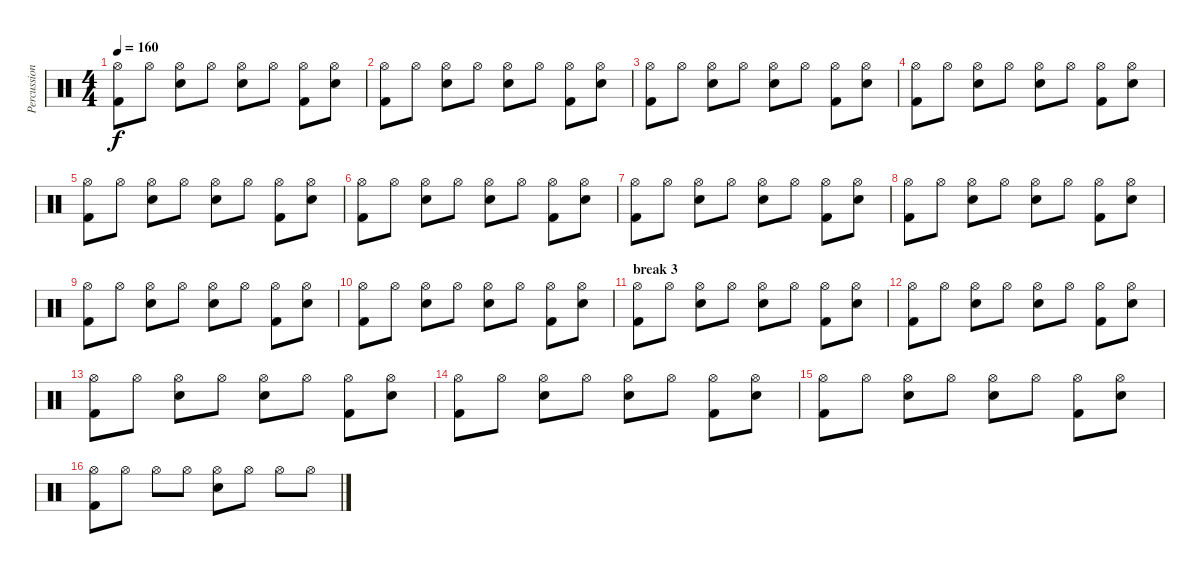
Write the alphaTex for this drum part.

\track ("Percussions" "Percussion") {instrument percussion}
\staff {score}
\articulation defaults
\ts (4 4)
\tempo 160
\clef neutral
\ks c
("Hi-Hat (open)" "Kick (hit) 2").8{dy f} "Hi-Hat (open)".8 ("Hi-Hat (open)" "Electric Snare (hit)").8 "Hi-Hat (open)".8 ("Hi-Hat (open)" "Electric Snare (hit)").8 "Hi-Hat (open)".8 ("Hi-Hat (open)" "Kick (hit) 2").8 ("Hi-Hat (open)" "Electric Snare (hit)").8 |
("Hi-Hat (open)" "Kick (hit) 2").8 "Hi-Hat (open)".8 ("Hi-Hat (open)" "Electric Snare (hit)").8 "Hi-Hat (open)".8 ("Hi-Hat (open)" "Electric Snare (hit)").8 "Hi-Hat (open)".8 ("Hi-Hat (open)" "Kick (hit) 2").8 ("Hi-Hat (open)" "Electric Snare (hit)").8 |
("Hi-Hat (open)" "Kick (hit) 2").8 "Hi-Hat (open)".8 ("Hi-Hat (open)" "Electric Snare (hit)").8 "Hi-Hat (open)".8 ("Hi-Hat (open)" "Electric Snare (hit)").8 "Hi-Hat (open)".8 ("Hi-Hat (open)" "Kick (hit) 2").8 ("Hi-Hat (open)" "Electric Snare (hit)").8 |
("Hi-Hat (open)" "Kick (hit) 2").8 "Hi-Hat (open)".8 ("Hi-Hat (open)" "Electric Snare (hit)").8 "Hi-Hat (open)".8 ("Hi-Hat (open)" "Electric Snare (hit)").8 "Hi-Hat (open)".8 ("Hi-Hat (open)" "Kick (hit) 2").8 ("Hi-Hat (open)" "Electric Snare (hit)").8 |
("Hi-Hat (open)" "Kick (hit) 2").8 "Hi-Hat (open)".8 ("Hi-Hat (open)" "Electric Snare (hit)").8 "Hi-Hat (open)".8 ("Hi-Hat (open)" "Electric Snare (hit)").8 "Hi-Hat (open)".8 ("Hi-Hat (open)" "Kick (hit) 2").8 ("Hi-Hat (open)" "Electric Snare (hit)").8 |
("Hi-Hat (open)" "Kick (hit) 2").8 "Hi-Hat (open)".8 ("Hi-Hat (open)" "Electric Snare (hit)").8 "Hi-Hat (open)".8 ("Hi-Hat (open)" "Electric Snare (hit)").8 "Hi-Hat (open)".8 ("Hi-Hat (open)" "Kick (hit) 2").8 ("Hi-Hat (open)" "Electric Snare (hit)").8 |
("Hi-Hat (open)" "Kick (hit) 2").8 "Hi-Hat (open)".8 ("Hi-Hat (open)" "Electric Snare (hit)").8 "Hi-Hat (open)".8 ("Hi-Hat (open)" "Electric Snare (hit)").8 "Hi-Hat (open)".8 ("Hi-Hat (open)" "Kick (hit) 2").8 ("Hi-Hat (open)" "Electric Snare (hit)").8 |
("Hi-Hat (open)" "Kick (hit) 2").8 "Hi-Hat (open)".8 ("Hi-Hat (open)" "Electric Snare (hit)").8 "Hi-Hat (open)".8 ("Hi-Hat (open)" "Electric Snare (hit)").8 "Hi-Hat (open)".8 ("Hi-Hat (open)" "Kick (hit) 2").8 ("Hi-Hat (open)" "Electric Snare (hit)").8 |
("Hi-Hat (open)" "Kick (hit) 2").8 "Hi-Hat (open)".8 ("Hi-Hat (open)" "Electric Snare (hit)").8 "Hi-Hat (open)".8 ("Hi-Hat (open)" "Electric Snare (hit)").8 "Hi-Hat (open)".8 ("Hi-Hat (open)" "Kick (hit) 2").8 ("Hi-Hat (open)" "Electric Snare (hit)").8 |
("Hi-Hat (open)" "Kick (hit) 2").8 "Hi-Hat (open)".8 ("Hi-Hat (open)" "Electric Snare (hit)").8 "Hi-Hat (open)".8 ("Hi-Hat (open)" "Electric Snare (hit)").8 "Hi-Hat (open)".8 ("Hi-Hat (open)" "Kick (hit) 2").8 ("Hi-Hat (open)" "Electric Snare (hit)").8 |
\section ("" "break 3")
("Hi-Hat (open)" "Kick (hit) 2").8 "Hi-Hat (open)".8 ("Hi-Hat (open)" "Electric Snare (hit)").8 "Hi-Hat (open)".8 ("Hi-Hat (open)" "Electric Snare (hit)").8 "Hi-Hat (open)".8 ("Hi-Hat (open)" "Kick (hit) 2").8 ("Hi-Hat (open)" "Electric Snare (hit)").8 |
("Hi-Hat (open)" "Kick (hit) 2").8 "Hi-Hat (open)".8 ("Hi-Hat (open)" "Electric Snare (hit)").8 "Hi-Hat (open)".8 ("Hi-Hat (open)" "Electric Snare (hit)").8 "Hi-Hat (open)".8 ("Hi-Hat (open)" "Kick (hit) 2").8 ("Hi-Hat (open)" "Electric Snare (hit)").8 |
("Hi-Hat (open)" "Kick (hit) 2").8 "Hi-Hat (open)".8 ("Hi-Hat (open)" "Electric Snare (hit)").8 "Hi-Hat (open)".8 ("Hi-Hat (open)" "Electric Snare (hit)").8 "Hi-Hat (open)".8 ("Hi-Hat (open)" "Kick (hit) 2").8 ("Hi-Hat (open)" "Electric Snare (hit)").8 |
("Hi-Hat (open)" "Kick (hit) 2").8 "Hi-Hat (open)".8 ("Hi-Hat (open)" "Electric Snare (hit)").8 "Hi-Hat (open)".8 ("Hi-Hat (open)" "Electric Snare (hit)").8 "Hi-Hat (open)".8 ("Hi-Hat (open)" "Kick (hit) 2").8 ("Hi-Hat (open)" "Electric Snare (hit)").8 |
("Hi-Hat (open)" "Kick (hit) 2").8 "Hi-Hat (open)".8 ("Hi-Hat (open)" "Electric Snare (hit)").8 "Hi-Hat (open)".8 ("Hi-Hat (open)" "Electric Snare (hit)").8 "Hi-Hat (open)".8 ("Hi-Hat (open)" "Kick (hit) 2").8 ("Hi-Hat (open)" "Electric Snare (hit)").8 |
("Hi-Hat (open)" "Kick (hit) 2").8 "Hi-Hat (open)".8 "Hi-Hat (open)".8 "Hi-Hat (open)".8 ("Hi-Hat (open)" "Electric Snare (hit)").8 "Hi-Hat (open)".8 "Hi-Hat (open)".8 "Hi-Hat (open)".8
